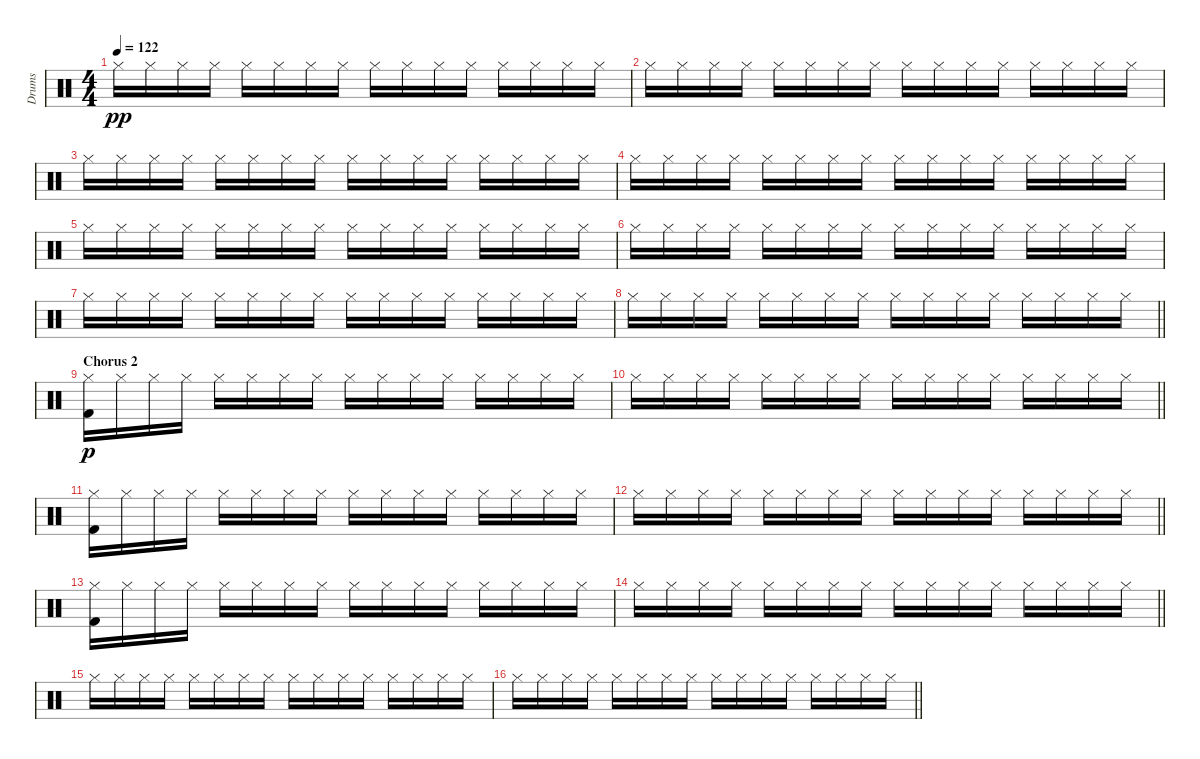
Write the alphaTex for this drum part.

\track ("Drums" "Drums") {instrument percussion}
\staff {score}
\articulation defaults
\ts (4 4)
\tempo 122
\clef neutral
\ks c "Hi-Hat (closed)".16{dy pp} "Hi-Hat (closed)".16 "Hi-Hat (closed)".16 "Hi-Hat (closed)".16 "Hi-Hat (closed)".16 "Hi-Hat (closed)".16 "Hi-Hat (closed)".16 "Hi-Hat (closed)".16 "Hi-Hat (closed)".16 "Hi-Hat (closed)".16 "Hi-Hat (closed)".16 "Hi-Hat (closed)".16 "Hi-Hat (closed)".16 "Hi-Hat (closed)".16 "Hi-Hat (closed)".16 "Hi-Hat (closed)".16
|
"Hi-Hat (closed)".16 "Hi-Hat (closed)".16 "Hi-Hat (closed)".16 "Hi-Hat (closed)".16 "Hi-Hat (closed)".16 "Hi-Hat (closed)".16 "Hi-Hat (closed)".16 "Hi-Hat (closed)".16 "Hi-Hat (closed)".16 "Hi-Hat (closed)".16 "Hi-Hat (closed)".16 "Hi-Hat (closed)".16 "Hi-Hat (closed)".16 "Hi-Hat (closed)".16 "Hi-Hat (closed)".16 "Hi-Hat (closed)".16 |
"Hi-Hat (closed)".16 "Hi-Hat (closed)".16 "Hi-Hat (closed)".16 "Hi-Hat (closed)".16 "Hi-Hat (closed)".16 "Hi-Hat (closed)".16 "Hi-Hat (closed)".16 "Hi-Hat (closed)".16 "Hi-Hat (closed)".16 "Hi-Hat (closed)".16 "Hi-Hat (closed)".16 "Hi-Hat (closed)".16 "Hi-Hat (closed)".16 "Hi-Hat (closed)".16 "Hi-Hat (closed)".16 "Hi-Hat (closed)".16 |
"Hi-Hat (closed)".16 "Hi-Hat (closed)".16 "Hi-Hat (closed)".16 "Hi-Hat (closed)".16 "Hi-Hat (closed)".16 "Hi-Hat (closed)".16 "Hi-Hat (closed)".16 "Hi-Hat (closed)".16 "Hi-Hat (closed)".16 "Hi-Hat (closed)".16 "Hi-Hat (closed)".16 "Hi-Hat (closed)".16 "Hi-Hat (closed)".16 "Hi-Hat (closed)".16 "Hi-Hat (closed)".16 "Hi-Hat (closed)".16 |
"Hi-Hat (closed)".16 "Hi-Hat (closed)".16 "Hi-Hat (closed)".16 "Hi-Hat (closed)".16 "Hi-Hat (closed)".16 "Hi-Hat (closed)".16 "Hi-Hat (closed)".16 "Hi-Hat (closed)".16 "Hi-Hat (closed)".16 "Hi-Hat (closed)".16 "Hi-Hat (closed)".16 "Hi-Hat (closed)".16 "Hi-Hat (closed)".16 "Hi-Hat (closed)".16 "Hi-Hat (closed)".16 "Hi-Hat (closed)".16 |
"Hi-Hat (closed)".16 "Hi-Hat (closed)".16 "Hi-Hat (closed)".16 "Hi-Hat (closed)".16 "Hi-Hat (closed)".16 "Hi-Hat (closed)".16 "Hi-Hat (closed)".16 "Hi-Hat (closed)".16 "Hi-Hat (closed)".16 "Hi-Hat (closed)".16 "Hi-Hat (closed)".16 "Hi-Hat (closed)".16 "Hi-Hat (closed)".16 "Hi-Hat (closed)".16 "Hi-Hat (closed)".16 "Hi-Hat (closed)".16 |
"Hi-Hat (closed)".16 "Hi-Hat (closed)".16 "Hi-Hat (closed)".16 "Hi-Hat (closed)".16 "Hi-Hat (closed)".16 "Hi-Hat (closed)".16 "Hi-Hat (closed)".16 "Hi-Hat (closed)".16 "Hi-Hat (closed)".16 "Hi-Hat (closed)".16 "Hi-Hat (closed)".16 "Hi-Hat (closed)".16 "Hi-Hat (closed)".16 "Hi-Hat (closed)".16 "Hi-Hat (closed)".16 "Hi-Hat (closed)".16 |
\barLineRight lightlight "Hi-Hat (closed)".16 "Hi-Hat (closed)".16 "Hi-Hat (closed)".16 "Hi-Hat (closed)".16 "Hi-Hat (closed)".16 "Hi-Hat (closed)".16 "Hi-Hat (closed)".16 "Hi-Hat (closed)".16 "Hi-Hat (closed)".16 "Hi-Hat (closed)".16 "Hi-Hat (closed)".16 "Hi-Hat (closed)".16 "Hi-Hat (closed)".16 "Hi-Hat (closed)".16 "Hi-Hat (closed)".16 "Hi-Hat (closed)".16
|
\section ("" "Chorus 2")
("Hi-Hat (closed)" "Kick (hit) 2").16{dy p} "Hi-Hat (closed)".16 "Hi-Hat (closed)".16 "Hi-Hat (closed)".16 "Hi-Hat (closed)".16 "Hi-Hat (closed)".16 "Hi-Hat (closed)".16 "Hi-Hat (closed)".16 "Hi-Hat (closed)".16 "Hi-Hat (closed)".16 "Hi-Hat (closed)".16 "Hi-Hat (closed)".16 "Hi-Hat (closed)".16 "Hi-Hat (closed)".16 "Hi-Hat (closed)".16 "Hi-Hat (closed)".16 |
\barLineRight lightlight "Hi-Hat (closed)".16 "Hi-Hat (closed)".16 "Hi-Hat (closed)".16 "Hi-Hat (closed)".16 "Hi-Hat (closed)".16 "Hi-Hat (closed)".16 "Hi-Hat (closed)".16 "Hi-Hat (closed)".16 "Hi-Hat (closed)".16 "Hi-Hat (closed)".16 "Hi-Hat (closed)".16 "Hi-Hat (closed)".16 "Hi-Hat (closed)".16 "Hi-Hat (closed)".16 "Hi-Hat (closed)".16 "Hi-Hat (closed)".16
|
("Hi-Hat (closed)" "Kick (hit) 2").16 "Hi-Hat (closed)".16 "Hi-Hat (closed)".16 "Hi-Hat (closed)".16 "Hi-Hat (closed)".16 "Hi-Hat (closed)".16 "Hi-Hat (closed)".16 "Hi-Hat (closed)".16 "Hi-Hat (closed)".16 "Hi-Hat (closed)".16 "Hi-Hat (closed)".16 "Hi-Hat (closed)".16 "Hi-Hat (closed)".16 "Hi-Hat (closed)".16 "Hi-Hat (closed)".16 "Hi-Hat (closed)".16 |
\barLineRight lightlight "Hi-Hat (closed)".16 "Hi-Hat (closed)".16 "Hi-Hat (closed)".16 "Hi-Hat (closed)".16 "Hi-Hat (closed)".16 "Hi-Hat (closed)".16 "Hi-Hat (closed)".16 "Hi-Hat (closed)".16 "Hi-Hat (closed)".16 "Hi-Hat (closed)".16 "Hi-Hat (closed)".16 "Hi-Hat (closed)".16 "Hi-Hat (closed)".16 "Hi-Hat (closed)".16 "Hi-Hat (closed)".16 "Hi-Hat (closed)".16
|
("Hi-Hat (closed)" "Kick (hit) 2").16 "Hi-Hat (closed)".16 "Hi-Hat (closed)".16 "Hi-Hat (closed)".16 "Hi-Hat (closed)".16 "Hi-Hat (closed)".16 "Hi-Hat (closed)".16 "Hi-Hat (closed)".16 "Hi-Hat (closed)".16 "Hi-Hat (closed)".16 "Hi-Hat (closed)".16 "Hi-Hat (closed)".16 "Hi-Hat (closed)".16 "Hi-Hat (closed)".16 "Hi-Hat (closed)".16 "Hi-Hat (closed)".16 |
\barLineRight lightlight "Hi-Hat (closed)".16 "Hi-Hat (closed)".16 "Hi-Hat (closed)".16 "Hi-Hat (closed)".16 "Hi-Hat (closed)".16 "Hi-Hat (closed)".16 "Hi-Hat (closed)".16 "Hi-Hat (closed)".16 "Hi-Hat (closed)".16 "Hi-Hat (closed)".16 "Hi-Hat (closed)".16 "Hi-Hat (closed)".16 "Hi-Hat (closed)".16 "Hi-Hat (closed)".16 "Hi-Hat (closed)".16 "Hi-Hat (closed)".16
|
"Hi-Hat (closed)".16 "Hi-Hat (closed)".16 "Hi-Hat (closed)".16 "Hi-Hat (closed)".16 "Hi-Hat (closed)".16 "Hi-Hat (closed)".16 "Hi-Hat (closed)".16 "Hi-Hat (closed)".16 "Hi-Hat (closed)".16 "Hi-Hat (closed)".16 "Hi-Hat (closed)".16 "Hi-Hat (closed)".16 "Hi-Hat (closed)".16 "Hi-Hat (closed)".16 "Hi-Hat (closed)".16 "Hi-Hat (closed)".16 |
\barLineRight lightlight "Hi-Hat (closed)".16 "Hi-Hat (closed)".16 "Hi-Hat (closed)".16 "Hi-Hat (closed)".16 "Hi-Hat (closed)".16 "Hi-Hat (closed)".16 "Hi-Hat (closed)".16 "Hi-Hat (closed)".16 "Hi-Hat (closed)".16 "Hi-Hat (closed)".16 "Hi-Hat (closed)".16 "Hi-Hat (closed)".16 "Hi-Hat (closed)".16 "Hi-Hat (closed)".16 "Hi-Hat (closed)".16 "Hi-Hat (closed)".16
